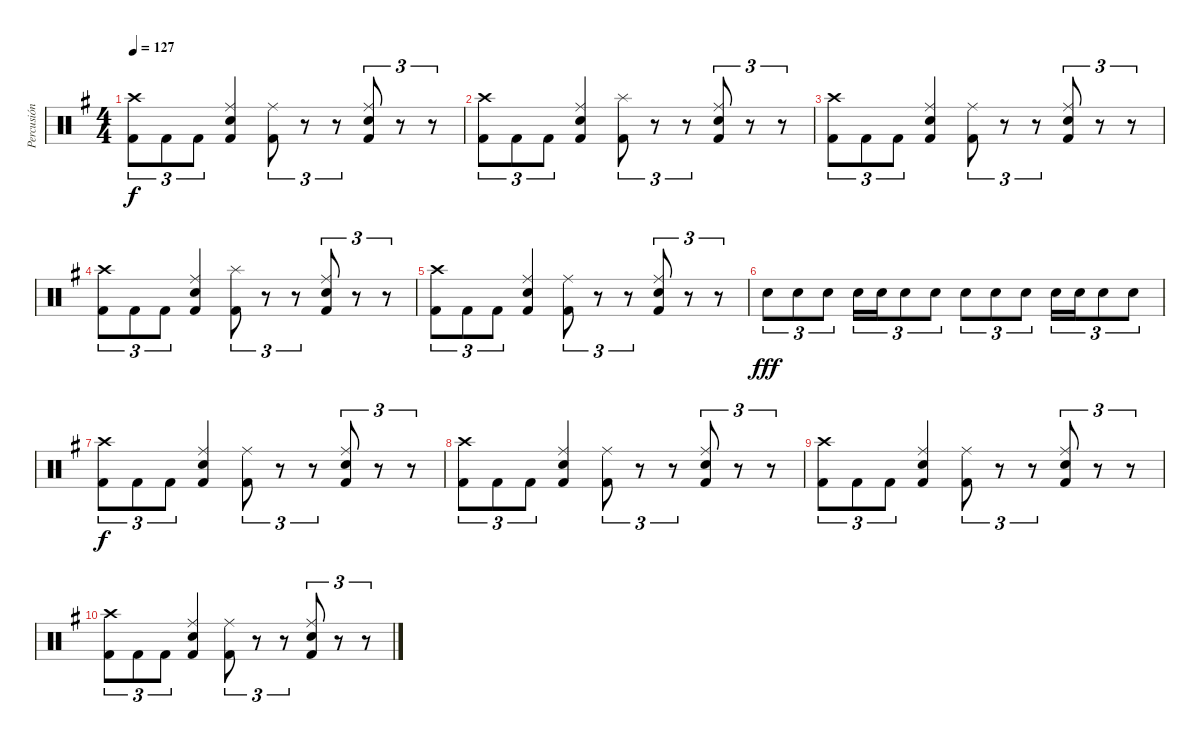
\track ("Percusión" "Percusión") {instrument percussion}
\staff {score}
\articulation defaults
\ts (4 4)
\tempo 127
\clef neutral
\ks eminor
("Kick (hit) 2" "Crash high (hit)").8{tu (3 2) dy f} "Kick (hit) 2".8{tu (3 2)} "Kick (hit) 2".8{tu (3 2)} ("Kick (hit) 2" "Ride (middle)" "Electric Snare (hit)").4 ("Ride (middle)" "Kick (hit) 2").8{tu (3 2)} r.8{tu (3 2)} r.8{tu (3 2)} ("Ride (middle)" "Kick (hit) 2" "Electric Snare (hit)").8{tu (3 2)} r.8{tu (3 2)} r.8{tu (3 2)} |
("Kick (hit) 2" "Crash high (hit)").8{tu (3 2)} "Kick (hit) 2".8{tu (3 2)} "Kick (hit) 2".8{tu (3 2)} ("Kick (hit) 2" "Ride (middle)" "Electric Snare (hit)").4 ("Splash (hit)" "Kick (hit) 2").8{tu (3 2)} r.8{tu (3 2)} r.8{tu (3 2)} ("Ride (middle)" "Kick (hit) 2" "Electric Snare (hit)").8{tu (3 2)} r.8{tu (3 2)} r.8{tu (3 2)} |
("Kick (hit) 2" "Crash high (hit)").8{tu (3 2)} "Kick (hit) 2".8{tu (3 2)} "Kick (hit) 2".8{tu (3 2)} ("Kick (hit) 2" "Ride (middle)" "Electric Snare (hit)").4 ("Ride (middle)" "Kick (hit) 2").8{tu (3 2)} r.8{tu (3 2)} r.8{tu (3 2)} ("Ride (middle)" "Kick (hit) 2" "Electric Snare (hit)").8{tu (3 2)} r.8{tu (3 2)} r.8{tu (3 2)} |
("Kick (hit) 2" "Crash high (hit)").8{tu (3 2)} "Kick (hit) 2".8{tu (3 2)} "Kick (hit) 2".8{tu (3 2)} ("Kick (hit) 2" "Ride (middle)" "Electric Snare (hit)").4 ("Splash (hit)" "Kick (hit) 2").8{tu (3 2)} r.8{tu (3 2)} r.8{tu (3 2)} ("Ride (middle)" "Kick (hit) 2" "Electric Snare (hit)").8{tu (3 2)} r.8{tu (3 2)} r.8{tu (3 2)} |
("Kick (hit) 2" "Crash high (hit)").8{tu (3 2)} "Kick (hit) 2".8{tu (3 2)} "Kick (hit) 2".8{tu (3 2)} ("Kick (hit) 2" "Ride (middle)" "Electric Snare (hit)").4 ("Ride (middle)" "Kick (hit) 2").8{tu (3 2)} r.8{tu (3 2)} r.8{tu (3 2)} ("Ride (middle)" "Kick (hit) 2" "Electric Snare (hit)").8{tu (3 2)} r.8{tu (3 2)} r.8{tu (3 2)} |
"Electric Snare (hit)".8{tu (3 2) dy fff} "Electric Snare (hit)".8{tu (3 2)} "Electric Snare (hit)".8{tu (3 2)} "Electric Snare (hit)".16{tu (3 2)} "Electric Snare (hit)".16{tu (3 2)} "Electric Snare (hit)".8{tu (3 2)} "Electric Snare (hit)".8{tu (3 2)} "Electric Snare (hit)".8{tu (3 2)} "Electric Snare (hit)".8{tu (3 2)} "Electric Snare (hit)".8{tu (3 2)} "Electric Snare (hit)".16{tu (3 2)} "Electric Snare (hit)".16{tu (3 2)} "Electric Snare (hit)".8{tu (3 2)} "Electric Snare (hit)".8{tu (3 2)} |
("Kick (hit) 2" "Crash high (hit)").8{tu (3 2) dy f} "Kick (hit) 2".8{tu (3 2)} "Kick (hit) 2".8{tu (3 2)} ("Kick (hit) 2" "Ride (middle)" "Electric Snare (hit)").4 ("Ride (middle)" "Kick (hit) 2").8{tu (3 2)} r.8{tu (3 2)} r.8{tu (3 2)} ("Ride (middle)" "Kick (hit) 2" "Electric Snare (hit)").8{tu (3 2)} r.8{tu (3 2)} r.8{tu (3 2)} |
("Kick (hit) 2" "Crash high (hit)").8{tu (3 2)} "Kick (hit) 2".8{tu (3 2)} "Kick (hit) 2".8{tu (3 2)} ("Kick (hit) 2" "Ride (middle)" "Electric Snare (hit)").4 ("Ride (middle)" "Kick (hit) 2").8{tu (3 2)} r.8{tu (3 2)} r.8{tu (3 2)} ("Ride (middle)" "Kick (hit) 2" "Electric Snare (hit)").8{tu (3 2)} r.8{tu (3 2)} r.8{tu (3 2)} |
("Kick (hit) 2" "Crash high (hit)").8{tu (3 2)} "Kick (hit) 2".8{tu (3 2)} "Kick (hit) 2".8{tu (3 2)} ("Kick (hit) 2" "Ride (middle)" "Electric Snare (hit)").4 ("Ride (middle)" "Kick (hit) 2").8{tu (3 2)} r.8{tu (3 2)} r.8{tu (3 2)} ("Ride (middle)" "Kick (hit) 2" "Electric Snare (hit)").8{tu (3 2)} r.8{tu (3 2)} r.8{tu (3 2)} |
("Kick (hit) 2" "Crash high (hit)").8{tu (3 2)} "Kick (hit) 2".8{tu (3 2)} "Kick (hit) 2".8{tu (3 2)} ("Kick (hit) 2" "Ride (middle)" "Electric Snare (hit)").4 ("Ride (middle)" "Kick (hit) 2").8{tu (3 2)} r.8{tu (3 2)} r.8{tu (3 2)} ("Ride (middle)" "Kick (hit) 2" "Electric Snare (hit)").8{tu (3 2)} r.8{tu (3 2)} r.8{tu (3 2)}
